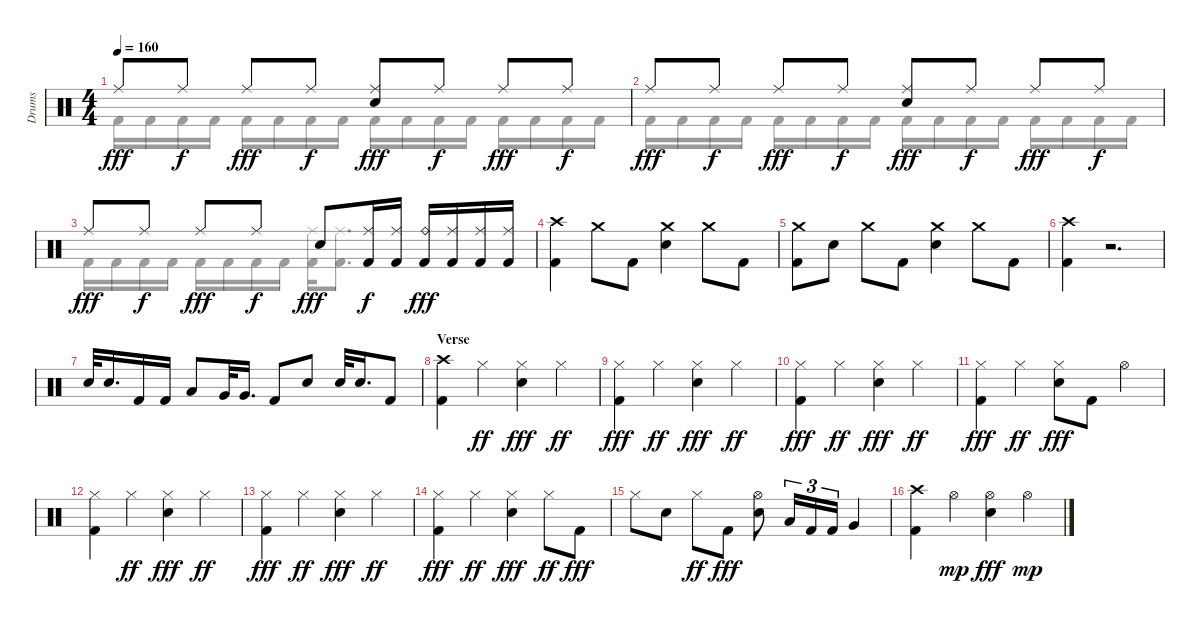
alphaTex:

\track ("Drums" "Drums") {instrument percussion}
\staff {score}
\articulation defaults
\voice
\ts (4 4)
\tempo 160
\clef neutral
\ks aminor "Ride (middle)".8{dy fff} "Ride (middle)".8{dy f} "Ride (middle)".8{dy fff} "Ride (middle)".8{dy f}
("Ride (middle)" "Snare (hit) 2").8{dy fff} "Ride (middle)".8{dy f} "Ride (middle)".8{dy fff} "Ride (middle)".8{dy f} |
"Ride (middle)".8{dy fff} "Ride (middle)".8{dy f} "Ride (middle)".8{dy fff} "Ride (middle)".8{dy f} ("Snare (hit) 2" "Ride (middle)").8{dy fff} "Ride (middle)".8{dy f} "Ride (middle)".8{dy fff} "Ride (middle)".8{dy f} |
"Ride (middle)".8{dy fff} "Ride (middle)".8{dy f} "Ride (middle)".8{dy fff} "Ride (middle)".8{dy f} "Snare (hit) 2".8{dy fff} ("Ride (middle)" "Kick (hit) 2").16{dy f} ("Ride (middle)" "Kick (hit) 2").16 ("Ride (bell)" "Kick (hit) 2").16{dy fff} ("Kick (hit) 2" "Ride (middle)").16 ("Kick (hit) 2" "Ride (middle)").16 ("Kick (hit) 2" "Ride (middle)").16 |
("Crash high (hit)" "Kick (hit) 2").4 "Crash medium (hit)".8 "Kick (hit) 2".8 ("Crash medium (hit)" "Snare (hit) 2").4 "Crash medium (hit)".8 "Kick (hit) 2".8 |
("Kick (hit) 2" "Crash medium (hit)").8 "Snare (hit) 2".8 "Crash medium (hit)".8 "Kick (hit) 2".8 ("Crash medium (hit)" "Snare (hit) 2").4 "Crash medium (hit)".8 "Kick (hit) 2".8 |
("Crash high (hit)" "Kick (hit) 2").4 r.2{d} |
"Snare (hit) 2".32 "Snare (hit) 2".16{d} "Kick (hit) 2".16 "Kick (hit) 2".16 "Low Tom (hit)".8 "Very Low Tom (hit)".32 "Very Low Tom (hit)".16{d} "Kick (hit) 2".8 "Snare (hit) 2".8 "Snare (hit) 2".32 "Snare (hit) 2".16{d} "Kick (hit) 2".8 |
\section ("" "Verse")
("Kick (hit) 2" "Crash high (hit)").4 "Hi-Hat (closed)".4{dy ff} ("Hi-Hat (closed)" "Snare (hit) 2").4{dy fff} "Hi-Hat (closed)".4{dy ff} |
("Kick (hit) 2" "Hi-Hat (closed)").4{dy fff} "Hi-Hat (closed)".4{dy ff} ("Hi-Hat (closed)" "Snare (hit) 2").4{dy fff} "Hi-Hat (closed)".4{dy ff} |
("Hi-Hat (closed)" "Kick (hit) 2").4{dy fff} "Hi-Hat (closed)".4{dy ff} ("Snare (hit) 2" "Hi-Hat (closed)").4{dy fff} "Hi-Hat (closed)".4{dy ff} |
("Hi-Hat (closed)" "Kick (hit) 2").4{dy fff} "Hi-Hat (closed)".4{dy ff} ("Snare (hit) 2" "Hi-Hat (closed)").8{dy fff} "Kick (hit) 2".8 "Hi-Hat (open)".4 |
("Hi-Hat (closed)" "Kick (hit) 2").4 "Hi-Hat (closed)".4{dy ff} ("Hi-Hat (closed)" "Snare (hit) 2").4{dy fff} "Hi-Hat (closed)".4{dy ff} |
("Kick (hit) 2" "Hi-Hat (closed)").4{dy fff} "Hi-Hat (closed)".4{dy ff} ("Snare (hit) 2" "Hi-Hat (closed)").4{dy fff} "Hi-Hat (closed)".4{dy ff} |
("Kick (hit) 2" "Hi-Hat (closed)").4{dy fff} "Hi-Hat (closed)".4{dy ff} ("Snare (hit) 2" "Hi-Hat (closed)").4{dy fff} "Hi-Hat (closed)".8{dy ff} "Kick (hit) 2".8{dy fff} |
"Hi-Hat (closed)".8 "Snare (hit) 2".8 "Hi-Hat (closed)".8{dy ff} "Kick (hit) 2".8{dy fff} ("Snare (hit) 2" "Hi-Hat (open)").8 "Low Tom (hit)".16{tu (3 2)} "Kick (hit) 2".16{tu (3 2)} "Kick (hit) 2".16{tu (3 2)} "Very Low Tom (hit)".4 |
("Kick (hit) 2" "Crash high (hit)").4 "Hi-Hat (open)".4{dy mp} ("Hi-Hat (open)" "Snare (hit) 2").4{dy fff} "Hi-Hat (open)".4{dy mp}
\voice
\clef neutral
\ottava regular
\simile none
\ks aminor "Kick (hit) 2".16{dy fff} "Kick (hit) 2".16 "Kick (hit) 2".16 "Kick (hit) 2".16 "Kick (hit) 2".16 "Kick (hit) 2".16 "Kick (hit) 2".16 "Kick (hit) 2".16 "Kick (hit) 2".16 "Kick (hit) 2".16 "Kick (hit) 2".16 "Kick (hit) 2".16 "Kick (hit) 2".16 "Kick (hit) 2".16 "Kick (hit) 2".16 "Kick (hit) 2".16
|
"Kick (hit) 2".16 "Kick (hit) 2".16 "Kick (hit) 2".16 "Kick (hit) 2".16 "Kick (hit) 2".16 "Kick (hit) 2".16 "Kick (hit) 2".16 "Kick (hit) 2".16 "Kick (hit) 2".16 "Kick (hit) 2".16 "Kick (hit) 2".16 "Kick (hit) 2".16 "Kick (hit) 2".16 "Kick (hit) 2".16 "Kick (hit) 2".16 "Kick (hit) 2".16 |
"Kick (hit) 2".16 "Kick (hit) 2".16 "Kick (hit) 2".16 "Kick (hit) 2".16 "Kick (hit) 2".16 "Kick (hit) 2".16 "Kick (hit) 2".16 "Kick (hit) 2".16 ("Kick (hit) 2" "Ride (middle)").16 ("Kick (hit) 2" "Ride (middle)").8{d} |
|
|
|
|
|
|
|
|
|
|
|
|
